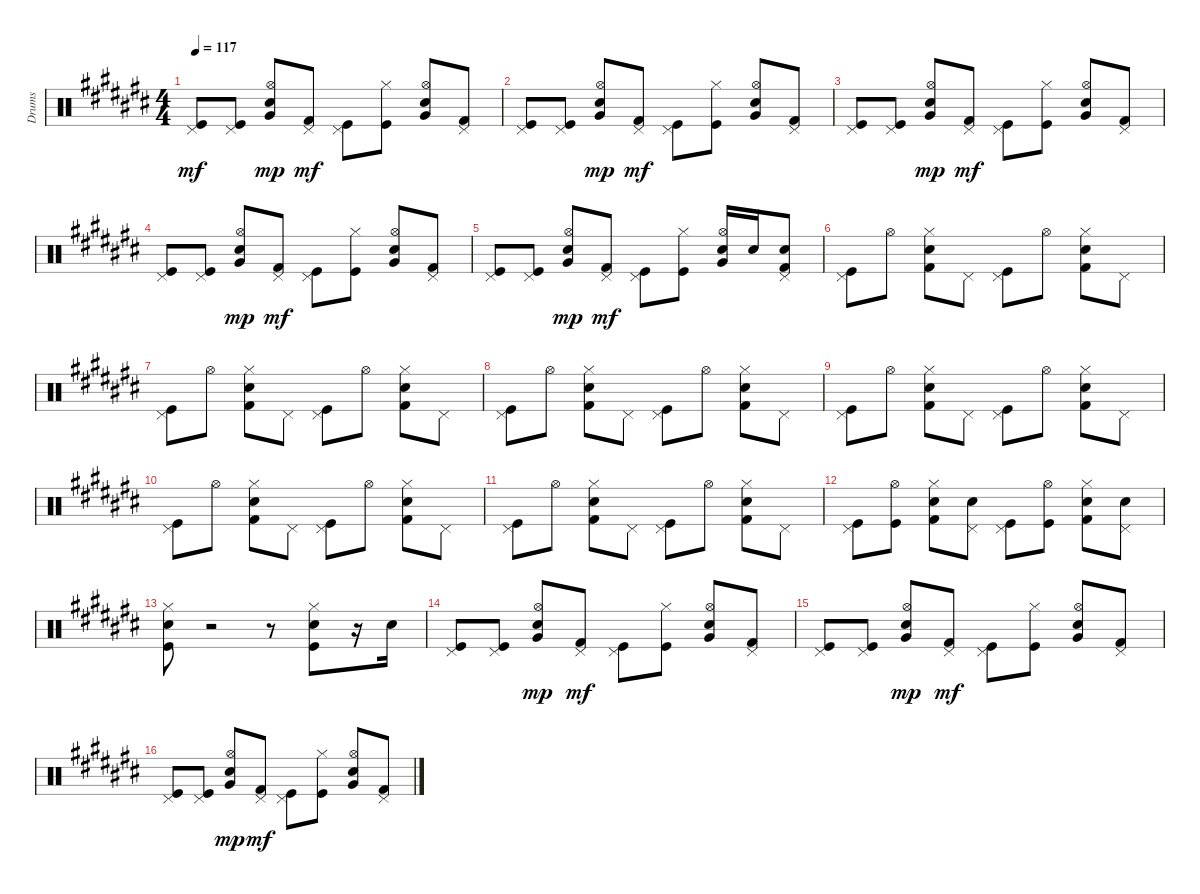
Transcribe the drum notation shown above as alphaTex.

\track ("Drums" "Drums") {instrument percussion}
\staff {score}
\articulation defaults
\ts (4 4)
\tempo 117
\clef neutral
\ks a#minor
("Pedal Hi-Hat (hit)" "Kick (hit)").8{dy mf} ("Kick (hit)" "Pedal Hi-Hat (hit)").8 ("Snare (hit) 2" "Hi-Hat (open)" "Very Low Tom (hit)").8{dy mp} ("Pedal Hi-Hat (hit)" "Kick (hit) 2").8{dy mf} ("Pedal Hi-Hat (hit)" "Kick (hit)").8 ("Kick (hit)" "Hi-Hat (closed)").8 ("Very Low Tom (hit)" "Snare (hit) 2" "Hi-Hat (open)").8 ("Pedal Hi-Hat (hit)" "Kick (hit) 2").8 |
("Pedal Hi-Hat (hit)" "Kick (hit)").8 ("Kick (hit)" "Pedal Hi-Hat (hit)").8 ("Snare (hit) 2" "Hi-Hat (open)" "Very Low Tom (hit)").8{dy mp} ("Pedal Hi-Hat (hit)" "Kick (hit) 2").8{dy mf} ("Pedal Hi-Hat (hit)" "Kick (hit)").8 ("Kick (hit)" "Hi-Hat (closed)").8 ("Very Low Tom (hit)" "Snare (hit) 2" "Hi-Hat (open)").8 ("Pedal Hi-Hat (hit)" "Kick (hit) 2").8 |
("Pedal Hi-Hat (hit)" "Kick (hit)").8 ("Kick (hit)" "Pedal Hi-Hat (hit)").8 ("Snare (hit) 2" "Hi-Hat (open)" "Very Low Tom (hit)").8{dy mp} ("Pedal Hi-Hat (hit)" "Kick (hit) 2").8{dy mf} ("Pedal Hi-Hat (hit)" "Kick (hit)").8 ("Kick (hit)" "Hi-Hat (closed)").8 ("Very Low Tom (hit)" "Snare (hit) 2" "Hi-Hat (open)").8 ("Pedal Hi-Hat (hit)" "Kick (hit) 2").8 |
("Pedal Hi-Hat (hit)" "Kick (hit)").8 ("Kick (hit)" "Pedal Hi-Hat (hit)").8 ("Snare (hit) 2" "Hi-Hat (open)" "Very Low Tom (hit)").8{dy mp} ("Pedal Hi-Hat (hit)" "Kick (hit) 2").8{dy mf} ("Pedal Hi-Hat (hit)" "Kick (hit)").8 ("Kick (hit)" "Hi-Hat (closed)").8 ("Very Low Tom (hit)" "Snare (hit) 2" "Hi-Hat (open)").8 ("Pedal Hi-Hat (hit)" "Kick (hit) 2").8 |
("Pedal Hi-Hat (hit)" "Kick (hit)").8 ("Kick (hit)" "Pedal Hi-Hat (hit)").8 ("Snare (hit) 2" "Hi-Hat (open)" "Very Low Tom (hit)").8{dy mp} ("Pedal Hi-Hat (hit)" "Kick (hit) 2").8{dy mf} ("Pedal Hi-Hat (hit)" "Kick (hit)").8 ("Kick (hit)" "Hi-Hat (closed)").8 ("Very Low Tom (hit)" "Hi-Hat (open)" "Snare (hit) 2").16 "Snare (hit) 2".16 ("Pedal Hi-Hat (hit)" "Kick (hit) 2" "Snare (hit) 2").8 |
("Kick (hit)" "Pedal Hi-Hat (hit)").8 "Hi-Hat (open)".8 ("Kick (hit) 2" "Hi-Hat (closed)" "Snare (hit) 2").8 "Pedal Hi-Hat (hit)".8 ("Kick (hit)" "Pedal Hi-Hat (hit)").8 "Hi-Hat (open)".8 ("Kick (hit) 2" "Hi-Hat (closed)" "Snare (hit) 2").8 "Pedal Hi-Hat (hit)".8 |
("Kick (hit)" "Pedal Hi-Hat (hit)").8 "Hi-Hat (open)".8 ("Kick (hit) 2" "Hi-Hat (closed)" "Snare (hit) 2").8 "Pedal Hi-Hat (hit)".8 ("Kick (hit)" "Pedal Hi-Hat (hit)").8 "Hi-Hat (open)".8 ("Kick (hit) 2" "Hi-Hat (closed)" "Snare (hit) 2").8 "Pedal Hi-Hat (hit)".8 |
("Kick (hit)" "Pedal Hi-Hat (hit)").8 "Hi-Hat (open)".8 ("Kick (hit) 2" "Hi-Hat (closed)" "Snare (hit) 2").8 "Pedal Hi-Hat (hit)".8 ("Kick (hit)" "Pedal Hi-Hat (hit)").8 "Hi-Hat (open)".8 ("Kick (hit) 2" "Hi-Hat (closed)" "Snare (hit) 2").8 "Pedal Hi-Hat (hit)".8 |
("Kick (hit)" "Pedal Hi-Hat (hit)").8 "Hi-Hat (open)".8 ("Kick (hit) 2" "Hi-Hat (closed)" "Snare (hit) 2").8 "Pedal Hi-Hat (hit)".8 ("Kick (hit)" "Pedal Hi-Hat (hit)").8 "Hi-Hat (open)".8 ("Kick (hit) 2" "Hi-Hat (closed)" "Snare (hit) 2").8 "Pedal Hi-Hat (hit)".8 |
("Kick (hit)" "Pedal Hi-Hat (hit)").8 "Hi-Hat (open)".8 ("Kick (hit) 2" "Hi-Hat (closed)" "Snare (hit) 2").8 "Pedal Hi-Hat (hit)".8 ("Kick (hit)" "Pedal Hi-Hat (hit)").8 "Hi-Hat (open)".8 ("Kick (hit) 2" "Hi-Hat (closed)" "Snare (hit) 2").8 "Pedal Hi-Hat (hit)".8 |
("Kick (hit)" "Pedal Hi-Hat (hit)").8 "Hi-Hat (open)".8 ("Kick (hit) 2" "Hi-Hat (closed)" "Snare (hit) 2").8 "Pedal Hi-Hat (hit)".8 ("Kick (hit)" "Pedal Hi-Hat (hit)").8 "Hi-Hat (open)".8 ("Kick (hit) 2" "Hi-Hat (closed)" "Snare (hit) 2").8 "Pedal Hi-Hat (hit)".8 |
("Kick (hit)" "Pedal Hi-Hat (hit)").8 ("Hi-Hat (open)" "Kick (hit)").8 ("Kick (hit) 2" "Hi-Hat (closed)" "Snare (hit) 2").8 ("Pedal Hi-Hat (hit)" "Snare (hit) 2").8 ("Kick (hit)" "Pedal Hi-Hat (hit)").8 ("Hi-Hat (open)" "Kick (hit)").8 ("Kick (hit) 2" "Hi-Hat (closed)" "Snare (hit) 2").8 ("Pedal Hi-Hat (hit)" "Snare (hit) 2").8 |
("Kick (hit)" "Hi-Hat (closed)" "Snare (hit) 2").8 r.2 r.8 ("Snare (hit) 2" "Hi-Hat (closed)" "Kick (hit)").8 r.16 "Snare (hit) 2".16 |
("Kick (hit)" "Pedal Hi-Hat (hit)").8 ("Kick (hit)" "Pedal Hi-Hat (hit)").8 ("Snare (hit) 2" "Hi-Hat (open)" "Very Low Tom (hit)").8{dy mp} ("Pedal Hi-Hat (hit)" "Kick (hit) 2").8{dy mf} ("Pedal Hi-Hat (hit)" "Kick (hit)").8 ("Kick (hit)" "Hi-Hat (closed)").8 ("Very Low Tom (hit)" "Snare (hit) 2" "Hi-Hat (open)").8 ("Pedal Hi-Hat (hit)" "Kick (hit) 2").8 |
("Pedal Hi-Hat (hit)" "Kick (hit)").8 ("Kick (hit)" "Pedal Hi-Hat (hit)").8 ("Snare (hit) 2" "Hi-Hat (open)" "Very Low Tom (hit)").8{dy mp} ("Pedal Hi-Hat (hit)" "Kick (hit) 2").8{dy mf} ("Pedal Hi-Hat (hit)" "Kick (hit)").8 ("Kick (hit)" "Hi-Hat (closed)").8 ("Very Low Tom (hit)" "Snare (hit) 2" "Hi-Hat (open)").8 ("Pedal Hi-Hat (hit)" "Kick (hit) 2").8 |
("Pedal Hi-Hat (hit)" "Kick (hit)").8 ("Kick (hit)" "Pedal Hi-Hat (hit)").8 ("Snare (hit) 2" "Hi-Hat (open)" "Very Low Tom (hit)").8{dy mp} ("Pedal Hi-Hat (hit)" "Kick (hit) 2").8{dy mf} ("Pedal Hi-Hat (hit)" "Kick (hit)").8 ("Kick (hit)" "Hi-Hat (closed)").8 ("Very Low Tom (hit)" "Snare (hit) 2" "Hi-Hat (open)").8 ("Pedal Hi-Hat (hit)" "Kick (hit) 2").8
